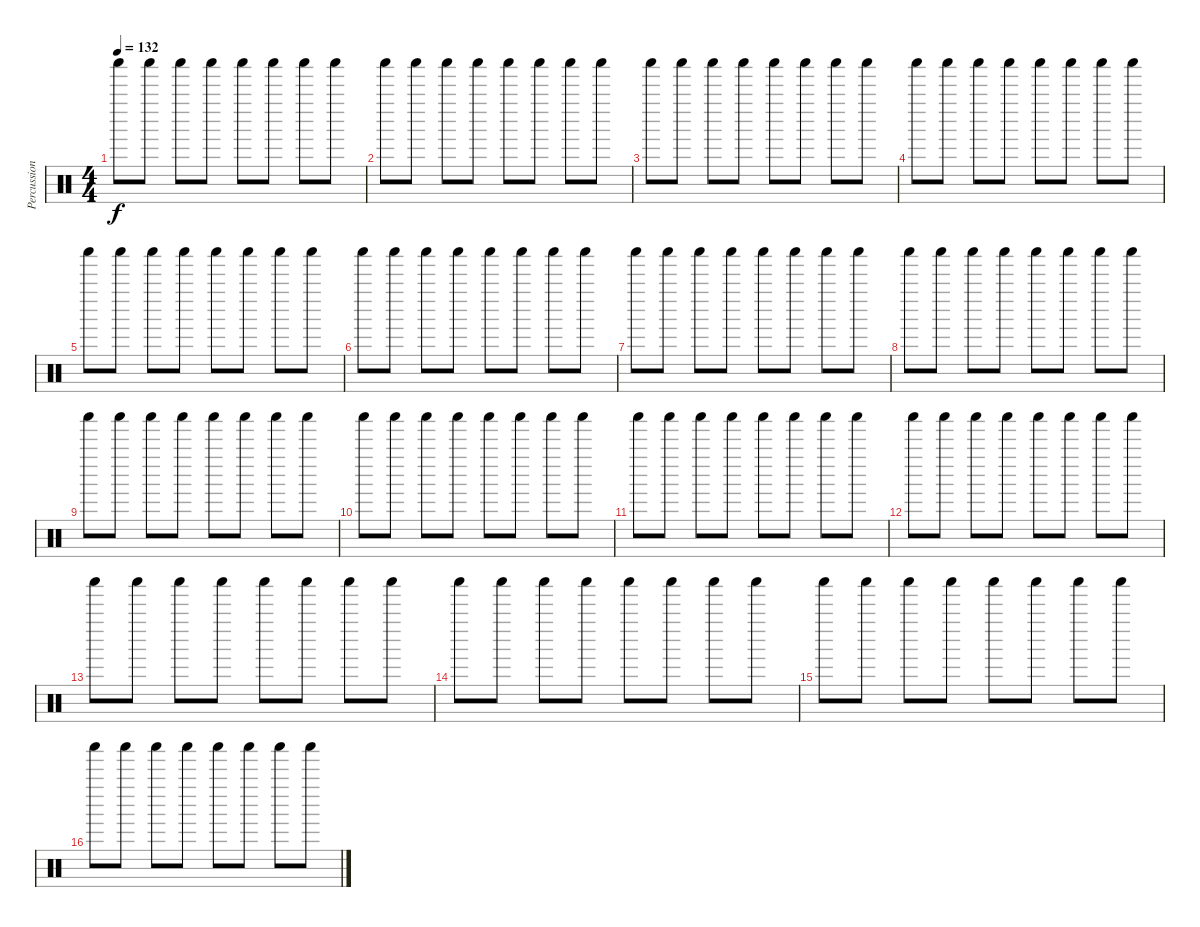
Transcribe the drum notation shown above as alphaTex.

\track ("Percussion" "Percussion") {instrument percussion}
\staff {score}
\articulation defaults
\ts (4 4)
\tempo 132
\clef neutral
\ks c "Shaker (hit)".8{dy f} "Shaker (hit)".8 "Shaker (hit)".8 "Shaker (hit)".8 "Shaker (hit)".8 "Shaker (hit)".8 "Shaker (hit)".8 "Shaker (hit)".8
|
"Shaker (hit)".8 "Shaker (hit)".8 "Shaker (hit)".8 "Shaker (hit)".8 "Shaker (hit)".8 "Shaker (hit)".8 "Shaker (hit)".8 "Shaker (hit)".8 |
"Shaker (hit)".8 "Shaker (hit)".8 "Shaker (hit)".8 "Shaker (hit)".8 "Shaker (hit)".8 "Shaker (hit)".8 "Shaker (hit)".8 "Shaker (hit)".8 |
"Shaker (hit)".8 "Shaker (hit)".8 "Shaker (hit)".8 "Shaker (hit)".8 "Shaker (hit)".8 "Shaker (hit)".8 "Shaker (hit)".8 "Shaker (hit)".8 |
"Shaker (hit)".8 "Shaker (hit)".8 "Shaker (hit)".8 "Shaker (hit)".8 "Shaker (hit)".8 "Shaker (hit)".8 "Shaker (hit)".8 "Shaker (hit)".8 |
"Shaker (hit)".8 "Shaker (hit)".8 "Shaker (hit)".8 "Shaker (hit)".8 "Shaker (hit)".8 "Shaker (hit)".8 "Shaker (hit)".8 "Shaker (hit)".8 |
"Shaker (hit)".8 "Shaker (hit)".8 "Shaker (hit)".8 "Shaker (hit)".8 "Shaker (hit)".8 "Shaker (hit)".8 "Shaker (hit)".8 "Shaker (hit)".8 |
"Shaker (hit)".8 "Shaker (hit)".8 "Shaker (hit)".8 "Shaker (hit)".8 "Shaker (hit)".8 "Shaker (hit)".8 "Shaker (hit)".8 "Shaker (hit)".8 |
"Shaker (hit)".8 "Shaker (hit)".8 "Shaker (hit)".8 "Shaker (hit)".8 "Shaker (hit)".8 "Shaker (hit)".8 "Shaker (hit)".8 "Shaker (hit)".8 |
"Shaker (hit)".8 "Shaker (hit)".8 "Shaker (hit)".8 "Shaker (hit)".8 "Shaker (hit)".8 "Shaker (hit)".8 "Shaker (hit)".8 "Shaker (hit)".8 |
"Shaker (hit)".8 "Shaker (hit)".8 "Shaker (hit)".8 "Shaker (hit)".8 "Shaker (hit)".8 "Shaker (hit)".8 "Shaker (hit)".8 "Shaker (hit)".8 |
"Shaker (hit)".8 "Shaker (hit)".8 "Shaker (hit)".8 "Shaker (hit)".8 "Shaker (hit)".8 "Shaker (hit)".8 "Shaker (hit)".8 "Shaker (hit)".8 |
"Shaker (hit)".8 "Shaker (hit)".8 "Shaker (hit)".8 "Shaker (hit)".8 "Shaker (hit)".8 "Shaker (hit)".8 "Shaker (hit)".8 "Shaker (hit)".8 |
"Shaker (hit)".8 "Shaker (hit)".8 "Shaker (hit)".8 "Shaker (hit)".8 "Shaker (hit)".8 "Shaker (hit)".8 "Shaker (hit)".8 "Shaker (hit)".8 |
"Shaker (hit)".8 "Shaker (hit)".8 "Shaker (hit)".8 "Shaker (hit)".8 "Shaker (hit)".8 "Shaker (hit)".8 "Shaker (hit)".8 "Shaker (hit)".8 |
"Shaker (hit)".8 "Shaker (hit)".8 "Shaker (hit)".8 "Shaker (hit)".8 "Shaker (hit)".8 "Shaker (hit)".8 "Shaker (hit)".8 "Shaker (hit)".8
